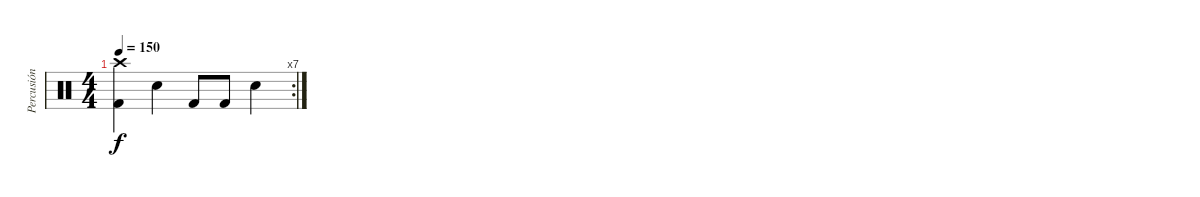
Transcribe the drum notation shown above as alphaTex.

\track ("Percusión" "Percusión") {instrument percussion}
\staff {score}
\articulation defaults
\rc 7
\ts (4 4)
\tempo 150
\clef neutral
\ks c
("Kick (hit) 2" "Crash high (hit)").4{dy f} "Snare (hit) 2".4 "Kick (hit) 2".8 "Kick (hit) 2".8 "Snare (hit) 2".4
